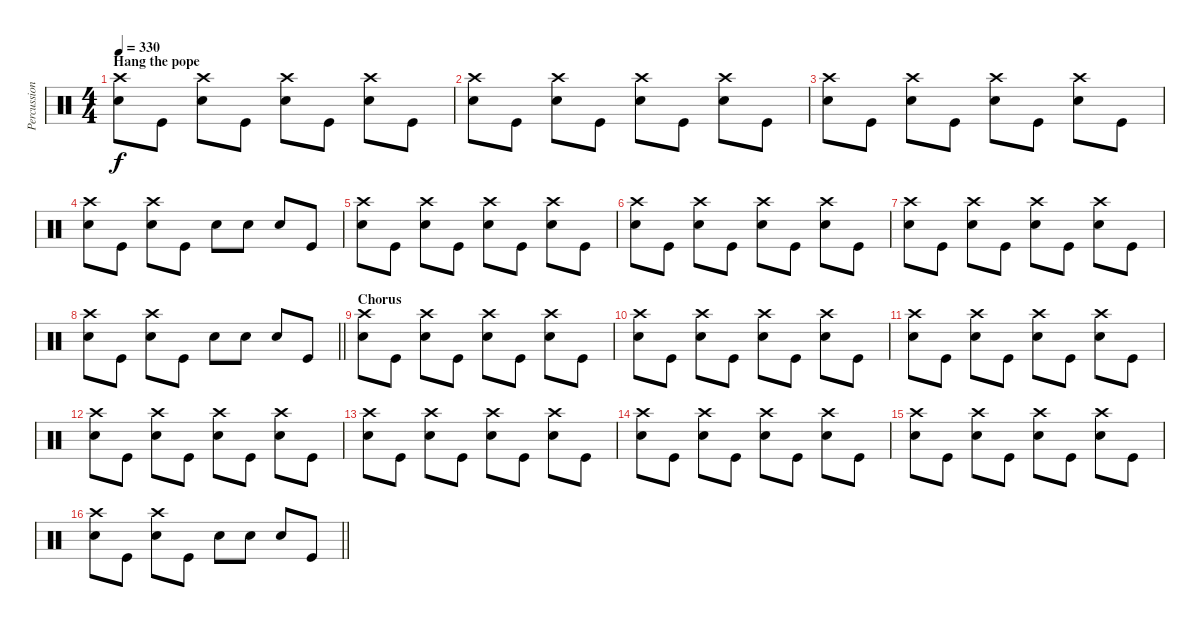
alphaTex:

\track ("Percussioni" "Percussion") {instrument percussion}
\staff {score}
\articulation defaults
\ts (4 4)
\section ("" "Hang the pope")
\tempo 330
\clef neutral
\ks c
("Crash high (hit)" "Snare (hit) 2").8{dy f} "Kick (hit)".8 ("Crash high (hit)" "Snare (hit) 2").8 "Kick (hit)".8 ("Crash high (hit)" "Snare (hit) 2").8 "Kick (hit)".8 ("Crash high (hit)" "Snare (hit) 2").8 "Kick (hit)".8 |
("Crash high (hit)" "Snare (hit) 2").8 "Kick (hit)".8 ("Crash high (hit)" "Snare (hit) 2").8 "Kick (hit)".8 ("Crash high (hit)" "Snare (hit) 2").8 "Kick (hit)".8 ("Crash high (hit)" "Snare (hit) 2").8 "Kick (hit)".8 |
("Crash high (hit)" "Snare (hit) 2").8 "Kick (hit)".8 ("Crash high (hit)" "Snare (hit) 2").8 "Kick (hit)".8 ("Crash high (hit)" "Snare (hit) 2").8 "Kick (hit)".8 ("Crash high (hit)" "Snare (hit) 2").8 "Kick (hit)".8 |
("Crash high (hit)" "Snare (hit) 2").8 "Kick (hit)".8 ("Crash high (hit)" "Snare (hit) 2").8 "Kick (hit)".8 "Snare (hit) 2".8 "Snare (hit) 2".8 "Snare (hit) 2".8 "Kick (hit)".8 |
("Crash high (hit)" "Snare (hit) 2").8 "Kick (hit)".8 ("Crash high (hit)" "Snare (hit) 2").8 "Kick (hit)".8 ("Crash high (hit)" "Snare (hit) 2").8 "Kick (hit)".8 ("Crash high (hit)" "Snare (hit) 2").8 "Kick (hit)".8 |
("Crash high (hit)" "Snare (hit) 2").8 "Kick (hit)".8 ("Crash high (hit)" "Snare (hit) 2").8 "Kick (hit)".8 ("Crash high (hit)" "Snare (hit) 2").8 "Kick (hit)".8 ("Crash high (hit)" "Snare (hit) 2").8 "Kick (hit)".8 |
("Crash high (hit)" "Snare (hit) 2").8 "Kick (hit)".8 ("Crash high (hit)" "Snare (hit) 2").8 "Kick (hit)".8 ("Crash high (hit)" "Snare (hit) 2").8 "Kick (hit)".8 ("Crash high (hit)" "Snare (hit) 2").8 "Kick (hit)".8 |
\barLineRight lightlight
("Crash high (hit)" "Snare (hit) 2").8 "Kick (hit)".8 ("Crash high (hit)" "Snare (hit) 2").8 "Kick (hit)".8 "Snare (hit) 2".8 "Snare (hit) 2".8 "Snare (hit) 2".8 "Kick (hit)".8 |
\section ("" "Chorus")
("Crash high (hit)" "Snare (hit) 2").8 "Kick (hit)".8 ("Crash high (hit)" "Snare (hit) 2").8 "Kick (hit)".8 ("Crash high (hit)" "Snare (hit) 2").8 "Kick (hit)".8 ("Crash high (hit)" "Snare (hit) 2").8 "Kick (hit)".8 |
("Crash high (hit)" "Snare (hit) 2").8 "Kick (hit)".8 ("Crash high (hit)" "Snare (hit) 2").8 "Kick (hit)".8 ("Crash high (hit)" "Snare (hit) 2").8 "Kick (hit)".8 ("Crash high (hit)" "Snare (hit) 2").8 "Kick (hit)".8 |
("Crash high (hit)" "Snare (hit) 2").8 "Kick (hit)".8 ("Crash high (hit)" "Snare (hit) 2").8 "Kick (hit)".8 ("Crash high (hit)" "Snare (hit) 2").8 "Kick (hit)".8 ("Crash high (hit)" "Snare (hit) 2").8 "Kick (hit)".8 |
("Crash high (hit)" "Snare (hit) 2").8 "Kick (hit)".8 ("Crash high (hit)" "Snare (hit) 2").8 "Kick (hit)".8 ("Crash high (hit)" "Snare (hit) 2").8 "Kick (hit)".8 ("Crash high (hit)" "Snare (hit) 2").8 "Kick (hit)".8 |
("Crash high (hit)" "Snare (hit) 2").8 "Kick (hit)".8 ("Crash high (hit)" "Snare (hit) 2").8 "Kick (hit)".8 ("Crash high (hit)" "Snare (hit) 2").8 "Kick (hit)".8 ("Crash high (hit)" "Snare (hit) 2").8 "Kick (hit)".8 |
("Crash high (hit)" "Snare (hit) 2").8 "Kick (hit)".8 ("Crash high (hit)" "Snare (hit) 2").8 "Kick (hit)".8 ("Crash high (hit)" "Snare (hit) 2").8 "Kick (hit)".8 ("Crash high (hit)" "Snare (hit) 2").8 "Kick (hit)".8 |
("Crash high (hit)" "Snare (hit) 2").8 "Kick (hit)".8 ("Crash high (hit)" "Snare (hit) 2").8 "Kick (hit)".8 ("Crash high (hit)" "Snare (hit) 2").8 "Kick (hit)".8 ("Crash high (hit)" "Snare (hit) 2").8 "Kick (hit)".8 |
\barLineRight lightlight
("Crash high (hit)" "Snare (hit) 2").8 "Kick (hit)".8 ("Crash high (hit)" "Snare (hit) 2").8 "Kick (hit)".8 "Snare (hit) 2".8 "Snare (hit) 2".8 "Snare (hit) 2".8 "Kick (hit)".8
